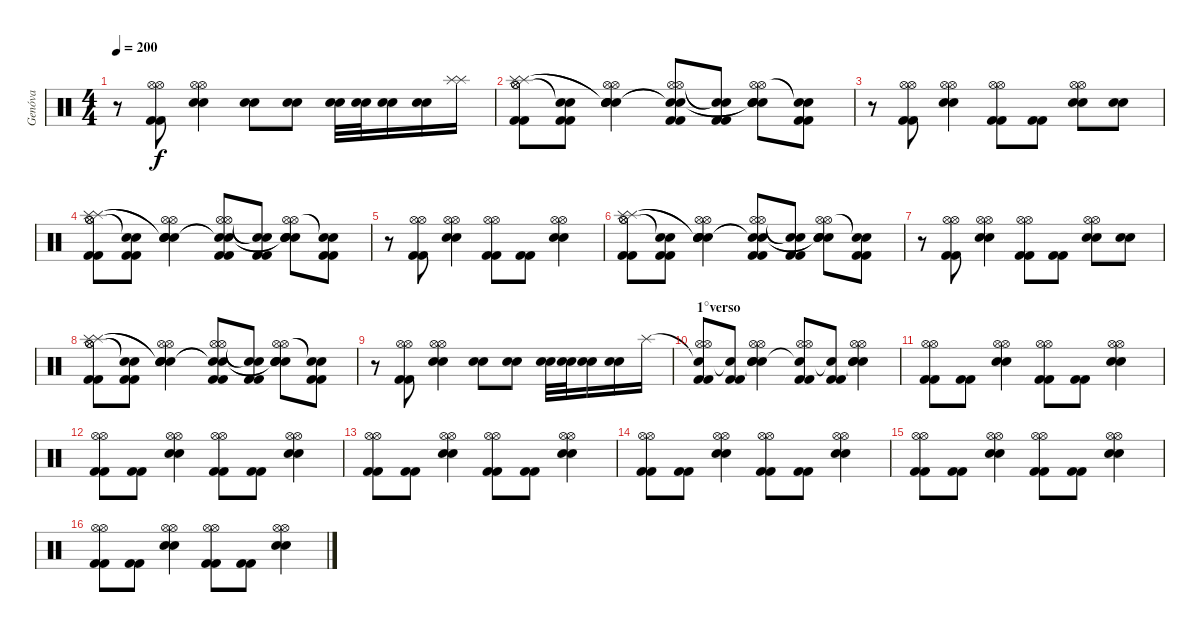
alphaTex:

\track ("Genóva" "Genóva") {instrument percussion}
\staff {score}
\articulation defaults
\ts (4 4)
\tempo 200
\clef neutral
\ks c
r.8{dy f} ("Kick (hit) 2" "Kick (hit) 2" "Hi-Hat (open)" "Hi-Hat (open)").8 ("Snare (hit) 2" "Snare (hit) 2" "Hi-Hat (open)" "Hi-Hat (open)").4 ("Snare (hit) 2" "Snare (hit) 2").8 ("Snare (hit) 2" "Snare (hit) 2").8 ("Snare (hit) 2" "Snare (hit) 2").32 ("Snare (hit) 2" "Snare (hit) 2").32 ("Snare (hit) 2" "Snare (hit) 2").16 ("Snare (hit) 2" "Snare (hit) 2").16 ("Splash (hit)" "Splash (hit)").16 |
("Kick (hit) 2" "Kick (hit) 2" "Hi-Hat (open)" "Hi-Hat (open)" "Splash (hit)" "Splash (hit)").8 ("Kick (hit) 2" "Kick (hit) 2" "Snare (hit)"{t} "Snare (hit)"{t}).8 ("Snare (hit) 2" "Snare (hit) 2" "Hi-Hat (open)" "Hi-Hat (open)" "Snare (hit)"{t} "Snare (hit)"{t}).4 ("Kick (hit) 2" "Kick (hit) 2" "Hi-Hat (open)" "Hi-Hat (open)" "Snare (hit)"{t} "Snare (hit)"{t}).8 ("Kick (hit) 2" "Kick (hit) 2" "Snare (hit)"{t} "Snare (hit)"{t}).8 ("Snare (hit) 2" "Snare (hit) 2" "Hi-Hat (open)" "Hi-Hat (open)" "Snare (hit)"{t} "Snare (hit)"{t}).8 ("Kick (hit) 2" "Kick (hit) 2" "Snare (hit)"{t} "Snare (hit)"{t}).8 |
r.8 ("Kick (hit) 2" "Kick (hit) 2" "Hi-Hat (open)" "Hi-Hat (open)").8 ("Snare (hit) 2" "Snare (hit) 2" "Hi-Hat (open)" "Hi-Hat (open)").4 ("Kick (hit) 2" "Kick (hit) 2" "Hi-Hat (open)" "Hi-Hat (open)").8 ("Kick (hit) 2" "Kick (hit) 2").8 ("Snare (hit) 2" "Snare (hit) 2" "Hi-Hat (open)" "Hi-Hat (open)").8 ("Snare (hit) 2" "Snare (hit) 2").8 |
("Kick (hit) 2" "Kick (hit) 2" "Hi-Hat (open)" "Hi-Hat (open)" "Splash (hit)" "Splash (hit)").8 ("Kick (hit) 2" "Kick (hit) 2" "Snare (hit)"{t} "Snare (hit)"{t}).8 ("Snare (hit) 2" "Snare (hit) 2" "Hi-Hat (open)" "Hi-Hat (open)" "Snare (hit)"{t} "Snare (hit)"{t}).4 ("Kick (hit) 2" "Kick (hit) 2" "Hi-Hat (open)" "Hi-Hat (open)" "Snare (hit)"{t} "Snare (hit)"{t}).8 ("Kick (hit) 2" "Kick (hit) 2" "Snare (hit)"{t} "Snare (hit)"{t}).8 ("Snare (hit) 2" "Snare (hit) 2" "Hi-Hat (open)" "Hi-Hat (open)" "Snare (hit)"{t} "Snare (hit)"{t}).8 ("Kick (hit) 2" "Kick (hit) 2" "Snare (hit)"{t} "Snare (hit)"{t}).8 |
r.8 ("Kick (hit) 2" "Kick (hit) 2" "Hi-Hat (open)" "Hi-Hat (open)").8 ("Snare (hit) 2" "Snare (hit) 2" "Hi-Hat (open)" "Hi-Hat (open)").4 ("Kick (hit) 2" "Kick (hit) 2" "Hi-Hat (open)" "Hi-Hat (open)").8 ("Kick (hit) 2" "Kick (hit) 2").8 ("Snare (hit) 2" "Snare (hit) 2" "Hi-Hat (open)" "Hi-Hat (open)").4 |
("Kick (hit) 2" "Kick (hit) 2" "Hi-Hat (open)" "Hi-Hat (open)" "Splash (hit)" "Splash (hit)").8 ("Kick (hit) 2" "Kick (hit) 2" "Snare (hit)"{t} "Snare (hit)"{t}).8 ("Snare (hit) 2" "Snare (hit) 2" "Hi-Hat (open)" "Hi-Hat (open)" "Snare (hit)"{t} "Snare (hit)"{t}).4 ("Kick (hit) 2" "Kick (hit) 2" "Hi-Hat (open)" "Hi-Hat (open)" "Snare (hit)"{t} "Snare (hit)"{t}).8 ("Kick (hit) 2" "Kick (hit) 2" "Snare (hit)"{t} "Snare (hit)"{t}).8 ("Snare (hit) 2" "Snare (hit) 2" "Hi-Hat (open)" "Hi-Hat (open)" "Snare (hit)"{t} "Snare (hit)"{t}).8 ("Kick (hit) 2" "Kick (hit) 2" "Snare (hit)"{t} "Snare (hit)"{t}).8 |
r.8 ("Kick (hit) 2" "Kick (hit) 2" "Hi-Hat (open)" "Hi-Hat (open)").8 ("Snare (hit) 2" "Snare (hit) 2" "Hi-Hat (open)" "Hi-Hat (open)").4 ("Kick (hit) 2" "Kick (hit) 2" "Hi-Hat (open)" "Hi-Hat (open)").8 ("Kick (hit) 2" "Kick (hit) 2").8 ("Snare (hit) 2" "Snare (hit) 2" "Hi-Hat (open)" "Hi-Hat (open)").8 ("Snare (hit) 2" "Snare (hit) 2").8 |
("Kick (hit) 2" "Kick (hit) 2" "Hi-Hat (open)" "Hi-Hat (open)" "Splash (hit)" "Splash (hit)").8 ("Kick (hit) 2" "Kick (hit) 2" "Snare (hit)"{t} "Snare (hit)"{t}).8 ("Snare (hit) 2" "Snare (hit) 2" "Hi-Hat (open)" "Hi-Hat (open)" "Snare (hit)"{t} "Snare (hit)"{t}).4 ("Kick (hit) 2" "Kick (hit) 2" "Hi-Hat (open)" "Hi-Hat (open)" "Snare (hit)"{t} "Snare (hit)"{t}).8 ("Kick (hit) 2" "Kick (hit) 2" "Snare (hit)"{t} "Snare (hit)"{t}).8 ("Snare (hit) 2" "Snare (hit) 2" "Hi-Hat (open)" "Hi-Hat (open)" "Snare (hit)"{t} "Snare (hit)"{t}).8 ("Kick (hit) 2" "Kick (hit) 2" "Snare (hit)"{t} "Snare (hit)"{t}).8 |
r.8 ("Kick (hit) 2" "Kick (hit) 2" "Hi-Hat (open)" "Hi-Hat (open)").8 ("Snare (hit) 2" "Snare (hit) 2" "Hi-Hat (open)" "Hi-Hat (open)").4 ("Snare (hit) 2" "Snare (hit) 2").8 ("Snare (hit) 2" "Snare (hit) 2").8 ("Snare (hit) 2" "Snare (hit) 2").32 ("Snare (hit) 2" "Snare (hit) 2").32 ("Snare (hit) 2" "Snare (hit) 2").16 ("Snare (hit) 2" "Snare (hit) 2").16 "Splash (hit)".16 |
\section ("" " 1°verso")
("Snare (hit)"{t} "Kick (hit) 2" "Kick (hit) 2" "Hi-Hat (open)" "Hi-Hat (open)").8 ("Snare (hit)"{t} "Kick (hit) 2" "Kick (hit) 2").8 ("Snare (hit)"{t} "Snare (hit) 2" "Snare (hit) 2" "Hi-Hat (open)" "Hi-Hat (open)").4 ("Snare (hit)"{t} "Kick (hit) 2" "Kick (hit) 2" "Hi-Hat (open)" "Hi-Hat (open)").8 ("Snare (hit)"{t} "Kick (hit) 2" "Kick (hit) 2").8 ("Snare (hit)"{t} "Snare (hit) 2" "Snare (hit) 2" "Hi-Hat (open)" "Hi-Hat (open)").4 |
("Kick (hit) 2" "Kick (hit) 2" "Hi-Hat (open)" "Hi-Hat (open)").8 ("Kick (hit) 2" "Kick (hit) 2").8 ("Snare (hit) 2" "Snare (hit) 2" "Hi-Hat (open)" "Hi-Hat (open)").4 ("Kick (hit) 2" "Kick (hit) 2" "Hi-Hat (open)" "Hi-Hat (open)").8 ("Kick (hit) 2" "Kick (hit) 2").8 ("Snare (hit) 2" "Snare (hit) 2" "Hi-Hat (open)" "Hi-Hat (open)").4 |
("Kick (hit) 2" "Kick (hit) 2" "Hi-Hat (open)" "Hi-Hat (open)").8 ("Kick (hit) 2" "Kick (hit) 2").8 ("Snare (hit) 2" "Snare (hit) 2" "Hi-Hat (open)" "Hi-Hat (open)").4 ("Kick (hit) 2" "Kick (hit) 2" "Hi-Hat (open)" "Hi-Hat (open)").8 ("Kick (hit) 2" "Kick (hit) 2").8 ("Snare (hit) 2" "Snare (hit) 2" "Hi-Hat (open)" "Hi-Hat (open)").4 |
("Kick (hit) 2" "Kick (hit) 2" "Hi-Hat (open)" "Hi-Hat (open)").8 ("Kick (hit) 2" "Kick (hit) 2").8 ("Snare (hit) 2" "Snare (hit) 2" "Hi-Hat (open)" "Hi-Hat (open)").4 ("Kick (hit) 2" "Kick (hit) 2" "Hi-Hat (open)" "Hi-Hat (open)").8 ("Kick (hit) 2" "Kick (hit) 2").8 ("Snare (hit) 2" "Snare (hit) 2" "Hi-Hat (open)" "Hi-Hat (open)").4 |
("Kick (hit) 2" "Kick (hit) 2" "Hi-Hat (open)" "Hi-Hat (open)").8 ("Kick (hit) 2" "Kick (hit) 2").8 ("Snare (hit) 2" "Snare (hit) 2" "Hi-Hat (open)" "Hi-Hat (open)").4 ("Kick (hit) 2" "Kick (hit) 2" "Hi-Hat (open)" "Hi-Hat (open)").8 ("Kick (hit) 2" "Kick (hit) 2").8 ("Snare (hit) 2" "Snare (hit) 2" "Hi-Hat (open)" "Hi-Hat (open)").4 |
("Kick (hit) 2" "Kick (hit) 2" "Hi-Hat (open)" "Hi-Hat (open)").8 ("Kick (hit) 2" "Kick (hit) 2").8 ("Snare (hit) 2" "Snare (hit) 2" "Hi-Hat (open)" "Hi-Hat (open)").4 ("Kick (hit) 2" "Kick (hit) 2" "Hi-Hat (open)" "Hi-Hat (open)").8 ("Kick (hit) 2" "Kick (hit) 2").8 ("Snare (hit) 2" "Snare (hit) 2" "Hi-Hat (open)" "Hi-Hat (open)").4 |
("Kick (hit) 2" "Kick (hit) 2" "Hi-Hat (open)" "Hi-Hat (open)").8 ("Kick (hit) 2" "Kick (hit) 2").8 ("Snare (hit) 2" "Snare (hit) 2" "Hi-Hat (open)" "Hi-Hat (open)").4 ("Kick (hit) 2" "Kick (hit) 2" "Hi-Hat (open)" "Hi-Hat (open)").8 ("Kick (hit) 2" "Kick (hit) 2").8 ("Snare (hit) 2" "Snare (hit) 2" "Hi-Hat (open)" "Hi-Hat (open)").4
